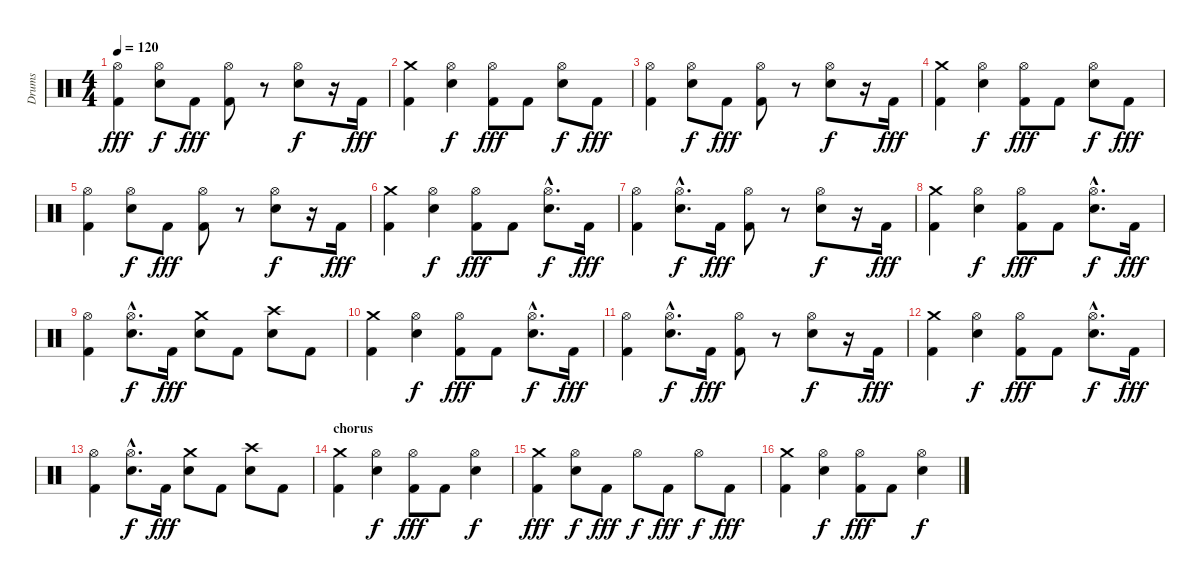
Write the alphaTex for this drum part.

\track ("Drums" "Drums") {instrument percussion}
\staff {score}
\articulation defaults
\ts (4 4)
\tempo 120
\clef neutral
\ks c
("Kick (hit) 2" "Hi-Hat (open)").4{dy fff} ("Electric Snare (hit)" "Hi-Hat (open)").8{dy f} "Kick (hit) 2".8{dy fff} ("Kick (hit) 2" "Hi-Hat (open)").8 r.8 ("Electric Snare (hit)" "Hi-Hat (open)").8{dy f} r.16 "Kick (hit) 2".16{dy fff} |
("Kick (hit) 2" "Crash medium (hit)").4 ("Electric Snare (hit)" "Hi-Hat (open)").4{dy f} ("Kick (hit) 2" "Hi-Hat (open)").8{dy fff} "Kick (hit) 2".8 ("Electric Snare (hit)" "Hi-Hat (open)").8{dy f} "Kick (hit) 2".8{dy fff} |
("Kick (hit) 2" "Hi-Hat (open)").4 ("Electric Snare (hit)" "Hi-Hat (open)").8{dy f} "Kick (hit) 2".8{dy fff} ("Kick (hit) 2" "Hi-Hat (open)").8 r.8 ("Electric Snare (hit)" "Hi-Hat (open)").8{dy f} r.16 "Kick (hit) 2".16{dy fff} |
("Kick (hit) 2" "Crash medium (hit)").4 ("Electric Snare (hit)" "Hi-Hat (open)").4{dy f} ("Kick (hit) 2" "Hi-Hat (open)").8{dy fff} "Kick (hit) 2".8 ("Electric Snare (hit)" "Hi-Hat (open)").8{dy f} "Kick (hit) 2".8{dy fff} |
("Kick (hit) 2" "Hi-Hat (open)").4 ("Electric Snare (hit)" "Hi-Hat (open)").8{dy f} "Kick (hit) 2".8{dy fff} ("Kick (hit) 2" "Hi-Hat (open)").8 r.8 ("Electric Snare (hit)" "Hi-Hat (open)").8{dy f} r.16 "Kick (hit) 2".16{dy fff} |
("Kick (hit) 2" "Crash medium (hit)").4 ("Electric Snare (hit)" "Hi-Hat (open)").4{dy f} ("Kick (hit) 2" "Hi-Hat (open)").8{dy fff} "Kick (hit) 2".8 ("Electric Snare (hit)"{hac} "Hi-Hat (open)"{hac}).8{d dy f} "Kick (hit) 2".16{dy fff} |
("Kick (hit) 2" "Hi-Hat (open)").4 ("Electric Snare (hit)"{hac} "Hi-Hat (open)"{hac}).8{d dy f} "Kick (hit) 2".16{dy fff} ("Kick (hit) 2" "Hi-Hat (open)").8 r.8 ("Electric Snare (hit)" "Hi-Hat (open)").8{dy f} r.16 "Kick (hit) 2".16{dy fff} |
("Kick (hit) 2" "Crash medium (hit)").4 ("Electric Snare (hit)" "Hi-Hat (open)").4{dy f} ("Kick (hit) 2" "Hi-Hat (open)").8{dy fff} "Kick (hit) 2".8 ("Electric Snare (hit)"{hac} "Hi-Hat (open)"{hac}).8{d dy f} "Kick (hit) 2".16{dy fff} |
("Kick (hit) 2" "Hi-Hat (open)").4 ("Electric Snare (hit)"{hac} "Hi-Hat (open)"{hac}).8{d dy f} "Kick (hit) 2".16{dy fff} ("Electric Snare (hit)" "Crash medium (hit)").8 "Kick (hit) 2".8 ("Electric Snare (hit)" "Crash high (hit)").8 "Kick (hit) 2".8 |
("Kick (hit) 2" "Crash medium (hit)").4 ("Electric Snare (hit)" "Hi-Hat (open)").4{dy f} ("Kick (hit) 2" "Hi-Hat (open)").8{dy fff} "Kick (hit) 2".8 ("Electric Snare (hit)"{hac} "Hi-Hat (open)"{hac}).8{d dy f} "Kick (hit) 2".16{dy fff} |
("Kick (hit) 2" "Hi-Hat (open)").4 ("Electric Snare (hit)"{hac} "Hi-Hat (open)"{hac}).8{d dy f} "Kick (hit) 2".16{dy fff} ("Kick (hit) 2" "Hi-Hat (open)").8 r.8 ("Electric Snare (hit)" "Hi-Hat (open)").8{dy f} r.16 "Kick (hit) 2".16{dy fff} |
("Kick (hit) 2" "Crash medium (hit)").4 ("Electric Snare (hit)" "Hi-Hat (open)").4{dy f} ("Kick (hit) 2" "Hi-Hat (open)").8{dy fff} "Kick (hit) 2".8 ("Electric Snare (hit)"{hac} "Hi-Hat (open)"{hac}).8{d dy f} "Kick (hit) 2".16{dy fff} |
("Kick (hit) 2" "Hi-Hat (open)").4 ("Electric Snare (hit)"{hac} "Hi-Hat (open)"{hac}).8{d dy f} "Kick (hit) 2".16{dy fff} ("Electric Snare (hit)" "Crash medium (hit)").8 "Kick (hit) 2".8 ("Electric Snare (hit)" "Crash high (hit)").8 "Kick (hit) 2".8 |
\section ("" "chorus")
("Kick (hit) 2" "Crash medium (hit)").4 ("Electric Snare (hit)" "Hi-Hat (open)").4{dy f} ("Kick (hit) 2" "Hi-Hat (open)").8{dy fff} "Kick (hit) 2".8 ("Electric Snare (hit)" "Hi-Hat (open)").4{dy f} |
("Kick (hit) 2" "Crash medium (hit)").4{dy fff} ("Electric Snare (hit)" "Hi-Hat (open)").8{dy f} "Kick (hit) 2".8{dy fff} "Hi-Hat (open)".8{dy f} "Kick (hit) 2".8{dy fff} "Hi-Hat (open)".8{dy f} "Kick (hit) 2".8{dy fff} |
("Kick (hit) 2" "Crash medium (hit)").4 ("Electric Snare (hit)" "Hi-Hat (open)").4{dy f} ("Kick (hit) 2" "Hi-Hat (open)").8{dy fff} "Kick (hit) 2".8 ("Electric Snare (hit)" "Hi-Hat (open)").4{dy f}
